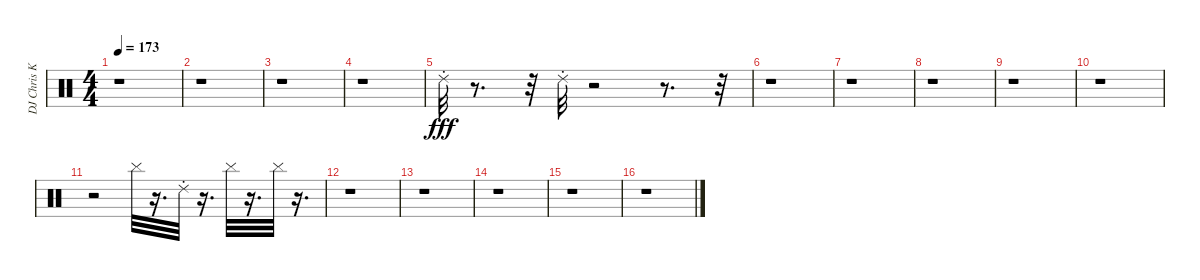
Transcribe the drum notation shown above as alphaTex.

\track ("DJ Chris Kilmore-Turntables" "DJ Chris K") {instrument percussion}
\staff {score}
\articulation defaults
\ts (4 4)
\tempo 173
\clef neutral
\ks c
r.1{dy fff} |
r.1 |
r.1 |
r.1 |
"Ride (choke) 2".32 r.8{d} r.32 "Ride (choke) 2".32 r.2 r.8{d} r.32 |
r.1 |
r.1 |
r.1 |
r.1 |
r.1 |
r.2 "Cymbal (hit)".32 r.16{d} "Ride (choke) 2".32 r.16{d} "Cymbal (hit)".32 r.16{d} "Cymbal (hit)".32 r.16{d} |
r.1 |
r.1 |
r.1 |
r.1 |
r.1
